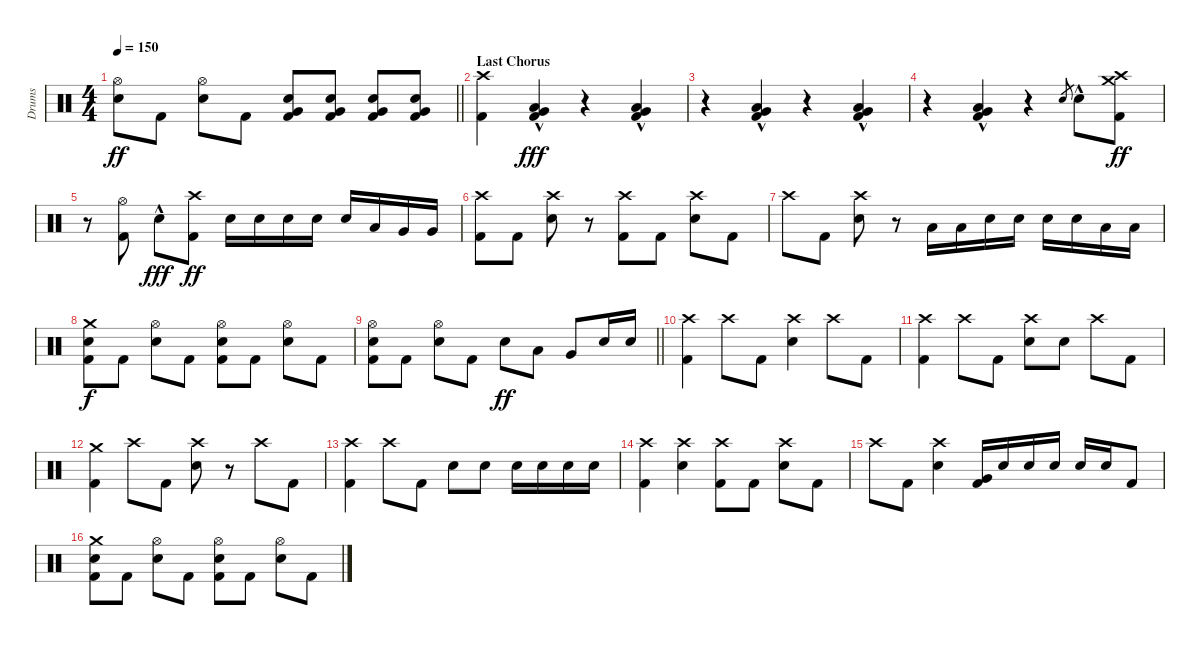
\track ("Drums" "Drums") {instrument percussion}
\staff {score}
\articulation defaults
\ts (4 4)
\tempo 150
\clef neutral
\barLineRight lightlight
\ks c
("Hi-Hat (open)" "Electric Snare (hit)").8{dy ff} "Kick (hit) 2".8 ("Hi-Hat (open)" "Electric Snare (hit)").8 "Kick (hit) 2".8 ("Electric Snare (hit)" "Very Low Tom (hit)" "Kick (hit) 2").8 ("Electric Snare (hit)" "Very Low Tom (hit)" "Kick (hit) 2").8 ("Electric Snare (hit)" "Very Low Tom (hit)" "Kick (hit) 2").8 ("Electric Snare (hit)" "Very Low Tom (hit)" "Kick (hit) 2").8 |
\section ("" "Last Chorus")
("Crash high (hit)" "Kick (hit) 2").4 ("Very Low Tom (hit)"{hac} "Low Floor Tom (hit)"{hac} "Kick (hit) 2"{hac}).4{dy fff} r.4 ("Very Low Tom (hit)"{hac} "Low Floor Tom (hit)"{hac} "Kick (hit) 2"{hac}).4 |
r.4 ("Very Low Tom (hit)"{hac} "Low Floor Tom (hit)"{hac} "Kick (hit) 2"{hac}).4 r.4 ("Very Low Tom (hit)"{hac} "Low Floor Tom (hit)"{hac} "Kick (hit) 2"{hac}).4 |
r.4 ("Very Low Tom (hit)"{hac} "Low Floor Tom (hit)"{hac} "Kick (hit) 2"{hac}).4 r.4 "Electric Snare (hit)".8{gr} "Electric Snare (hit)"{hac}.8 ("Crash medium (hit)" "Crash high (hit)" "Kick (hit) 2").8{dy ff} |
r.8 ("Hi-Hat (open)" "Kick (hit) 2").8 "Electric Snare (hit)"{hac}.8{dy fff} ("Crash high (hit)" "Kick (hit) 2").8{dy ff} "Electric Snare (hit)".16 "Electric Snare (hit)".16 "Electric Snare (hit)".16 "Electric Snare (hit)".16 "Electric Snare (hit)".16 "Low Tom (hit)".16 "Very Low Tom (hit)".16 "Very Low Tom (hit)".16 |
("Crash high (hit)" "Kick (hit) 2").8 "Kick (hit) 2".8 ("Crash high (hit)" "Electric Snare (hit)").8 r.8 ("Crash high (hit)" "Kick (hit) 2").8 "Kick (hit) 2".8 ("Crash high (hit)" "Electric Snare (hit)").8 "Kick (hit) 2".8 |
"Crash high (hit)".8 "Kick (hit) 2".8 ("Crash high (hit)" "Electric Snare (hit)").8 r.8 "Low Tom (hit)".16 "Low Tom (hit)".16 "Electric Snare (hit)".16 "Electric Snare (hit)".16 "Electric Snare (hit)".16 "Electric Snare (hit)".16 "Low Floor Tom (hit)".16 "Low Floor Tom (hit)".16 |
("Crash medium (hit)" "Electric Snare (hit)" "Kick (hit) 2").8{dy f} "Kick (hit) 2".8 ("Hi-Hat (open)" "Electric Snare (hit)").8 "Kick (hit) 2".8 ("Hi-Hat (open)" "Electric Snare (hit)" "Kick (hit) 2").8 "Kick (hit) 2".8 ("Hi-Hat (open)" "Electric Snare (hit)").8 "Kick (hit) 2".8 |
\barLineRight lightlight
("Hi-Hat (open)" "Electric Snare (hit)" "Kick (hit) 2").8 "Kick (hit) 2".8 ("Hi-Hat (open)" "Electric Snare (hit)").8 "Kick (hit) 2".8 "Electric Snare (hit)".8{dy ff} "Low Tom (hit)".8 "Very Low Tom (hit)".8 "Electric Snare (hit)".16 "Electric Snare (hit)".16 |
("Crash high (hit)" "Kick (hit) 2").4 "Crash high (hit)".8 "Kick (hit) 2".8 ("Crash high (hit)" "Electric Snare (hit)").4 "Crash high (hit)".8 "Kick (hit) 2".8 |
("Crash high (hit)" "Kick (hit) 2").4 "Crash high (hit)".8 "Kick (hit) 2".8 ("Crash high (hit)" "Electric Snare (hit)").8 "Electric Snare (hit)".8 "Crash high (hit)".8 "Kick (hit) 2".8 |
("Crash medium (hit)" "Kick (hit) 2").4 "Crash high (hit)".8 "Kick (hit) 2".8 ("Crash high (hit)" "Electric Snare (hit)").8 r.8 "Crash high (hit)".8 "Kick (hit) 2".8 |
("Crash high (hit)" "Kick (hit) 2").4 "Crash high (hit)".8 "Kick (hit) 2".8 "Electric Snare (hit)".8 "Electric Snare (hit)".8 "Electric Snare (hit)".16 "Electric Snare (hit)".16 "Electric Snare (hit)".16 "Electric Snare (hit)".16 |
("Crash high (hit)" "Kick (hit) 2").4 ("Crash high (hit)" "Electric Snare (hit)").4 ("Crash high (hit)" "Kick (hit) 2").8 "Kick (hit) 2".8 ("Crash high (hit)" "Electric Snare (hit)").8 "Kick (hit) 2".8 |
"Crash high (hit)".8 "Kick (hit) 2".8 ("Crash high (hit)" "Electric Snare (hit)").4 ("Very Low Tom (hit)" "Kick (hit) 2").16 "Electric Snare (hit)".16 "Electric Snare (hit)".16 "Electric Snare (hit)".16 "Electric Snare (hit)".16 "Electric Snare (hit)".16 "Kick (hit) 2".8 |
("Crash medium (hit)" "Electric Snare (hit)" "Kick (hit) 2").8 "Kick (hit) 2".8 ("Hi-Hat (open)" "Electric Snare (hit)").8 "Kick (hit) 2".8 ("Hi-Hat (open)" "Electric Snare (hit)" "Kick (hit) 2").8 "Kick (hit) 2".8 ("Hi-Hat (open)" "Electric Snare (hit)").8 "Kick (hit) 2".8
